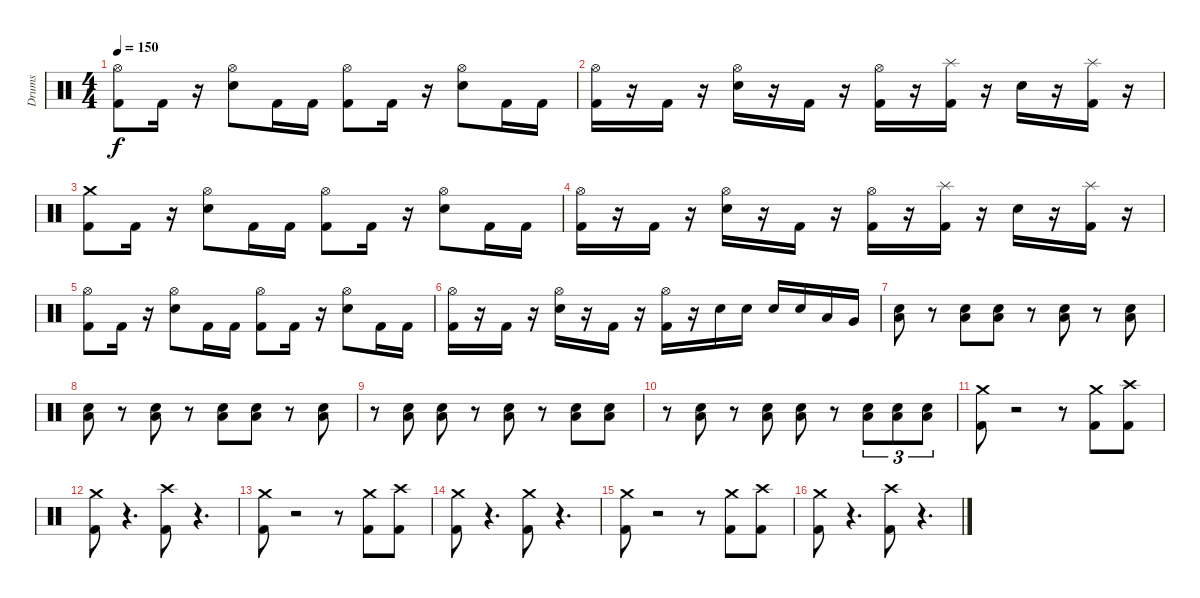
\track ("Drums" "Drums") {instrument percussion}
\staff {score}
\articulation defaults
\ts (4 4)
\tempo 150
\clef neutral
\ks c
("Hi-Hat (open)" "Kick (hit) 2").8{dy f} "Kick (hit) 2".16 r.16 ("Hi-Hat (open)" "Electric Snare (hit)").8 "Kick (hit) 2".16 "Kick (hit) 2".16 ("Hi-Hat (open)" "Kick (hit) 2").8 "Kick (hit) 2".16 r.16 ("Hi-Hat (open)" "Electric Snare (hit)").8 "Kick (hit) 2".16 "Kick (hit) 2".16 |
("Hi-Hat (open)" "Kick (hit) 2").16 r.16 "Kick (hit) 2".16 r.16 ("Hi-Hat (open)" "Electric Snare (hit)").16 r.16 "Kick (hit) 2".16 r.16 ("Hi-Hat (open)" "Kick (hit) 2").16 r.16 ("Splash (hit)" "Kick (hit) 2").16 r.16 "Electric Snare (hit)".16 r.16 ("Splash (hit)" "Kick (hit) 2").16 r.16 |
("Crash medium (hit)" "Kick (hit) 2").8 "Kick (hit) 2".16 r.16 ("Hi-Hat (open)" "Electric Snare (hit)").8 "Kick (hit) 2".16 "Kick (hit) 2".16 ("Hi-Hat (open)" "Kick (hit) 2").8 "Kick (hit) 2".16 r.16 ("Hi-Hat (open)" "Electric Snare (hit)").8 "Kick (hit) 2".16 "Kick (hit) 2".16 |
("Hi-Hat (open)" "Kick (hit) 2").16 r.16 "Kick (hit) 2".16 r.16 ("Hi-Hat (open)" "Electric Snare (hit)").16 r.16 "Kick (hit) 2".16 r.16 ("Hi-Hat (open)" "Kick (hit) 2").16 r.16 ("Splash (hit)" "Kick (hit) 2").16 r.16 "Electric Snare (hit)".16 r.16 ("Splash (hit)" "Kick (hit) 2").16 r.16 |
("Hi-Hat (open)" "Kick (hit) 2").8 "Kick (hit) 2".16 r.16 ("Hi-Hat (open)" "Electric Snare (hit)").8 "Kick (hit) 2".16 "Kick (hit) 2".16 ("Hi-Hat (open)" "Kick (hit) 2").8 "Kick (hit) 2".16 r.16 ("Hi-Hat (open)" "Electric Snare (hit)").8 "Kick (hit) 2".16 "Kick (hit) 2".16 |
("Hi-Hat (open)" "Kick (hit) 2").16 r.16 "Kick (hit) 2".16 r.16 ("Hi-Hat (open)" "Electric Snare (hit)").16 r.16 "Kick (hit) 2".16 r.16 ("Hi-Hat (open)" "Kick (hit) 2").16 r.16 "Electric Snare (hit)".16 "Electric Snare (hit)".16 "Electric Snare (hit)".16 "Electric Snare (hit)".16 "Low Tom (hit)".16 "Very Low Tom (hit)".16 |
("Low Tom (hit)" "Electric Snare (hit)").8 r.8 ("Low Tom (hit)" "Electric Snare (hit)").8 ("Low Tom (hit)" "Electric Snare (hit)").8 r.8 ("Low Tom (hit)" "Electric Snare (hit)").8 r.8 ("Low Tom (hit)" "Electric Snare (hit)").8 |
("Low Tom (hit)" "Electric Snare (hit)").8 r.8 ("Low Tom (hit)" "Electric Snare (hit)").8 r.8 ("Low Tom (hit)" "Electric Snare (hit)").8 ("Low Tom (hit)" "Electric Snare (hit)").8 r.8 ("Low Tom (hit)" "Electric Snare (hit)").8 |
r.8 ("Low Tom (hit)" "Electric Snare (hit)").8 ("Low Tom (hit)" "Electric Snare (hit)").8 r.8 ("Low Tom (hit)" "Electric Snare (hit)").8 r.8 ("Low Tom (hit)" "Electric Snare (hit)").8 ("Low Tom (hit)" "Electric Snare (hit)").8 |
r.8 ("Low Tom (hit)" "Electric Snare (hit)").8 r.8 ("Low Tom (hit)" "Electric Snare (hit)").8 ("Low Tom (hit)" "Electric Snare (hit)").8 r.8 ("Low Tom (hit)" "Electric Snare (hit)").8{tu (3 2)} ("Low Tom (hit)" "Electric Snare (hit)").8{tu (3 2)} ("Low Tom (hit)" "Electric Snare (hit)").8{tu (3 2)} |
("Crash medium (hit)" "Kick (hit) 2").8 r.2 r.8 ("Crash medium (hit)" "Kick (hit) 2").8 ("Crash high (hit)" "Kick (hit) 2").8 |
("Crash medium (hit)" "Kick (hit) 2").8 r.4{d} ("Crash high (hit)" "Kick (hit) 2").8 r.4{d} |
("Crash medium (hit)" "Kick (hit) 2").8 r.2 r.8 ("Crash medium (hit)" "Kick (hit) 2").8 ("Crash high (hit)" "Kick (hit) 2").8 |
("Crash medium (hit)" "Kick (hit) 2").8 r.4{d} ("Crash medium (hit)" "Kick (hit) 2").8 r.4{d} |
("Crash medium (hit)" "Kick (hit) 2").8 r.2 r.8 ("Crash medium (hit)" "Kick (hit) 2").8 ("Crash high (hit)" "Kick (hit) 2").8 |
("Crash medium (hit)" "Kick (hit) 2").8 r.4{d} ("Crash high (hit)" "Kick (hit) 2").8 r.4{d}
